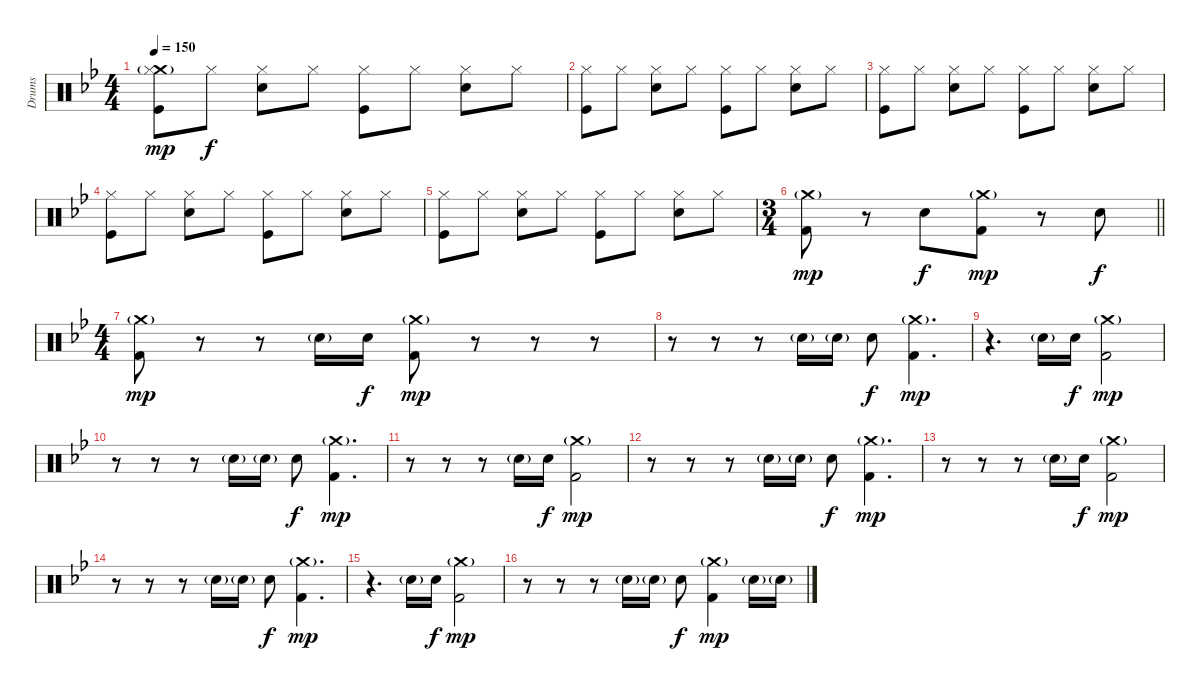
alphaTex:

\track ("Drums" "Drums") {instrument percussion}
\staff {score}
\articulation defaults
\ts (4 4)
\tempo 150
\clef neutral
\ks bb
("Crash medium (hit)"{g} "Hi-Hat (closed)" "Kick (hit)").8{dy mp} "Hi-Hat (closed)".8{dy f} ("Hi-Hat (closed)" "Electric Snare (hit)").8 "Hi-Hat (closed)".8 ("Hi-Hat (closed)" "Kick (hit)").8 "Hi-Hat (closed)".8 ("Hi-Hat (closed)" "Electric Snare (hit)").8 "Hi-Hat (closed)".8 |
("Hi-Hat (closed)" "Kick (hit)").8 "Hi-Hat (closed)".8 ("Hi-Hat (closed)" "Electric Snare (hit)").8 "Hi-Hat (closed)".8 ("Hi-Hat (closed)" "Kick (hit)").8 "Hi-Hat (closed)".8 ("Hi-Hat (closed)" "Electric Snare (hit)").8 "Hi-Hat (closed)".8 |
("Hi-Hat (closed)" "Kick (hit)").8 "Hi-Hat (closed)".8 ("Hi-Hat (closed)" "Electric Snare (hit)").8 "Hi-Hat (closed)".8 ("Hi-Hat (closed)" "Kick (hit)").8 "Hi-Hat (closed)".8 ("Hi-Hat (closed)" "Electric Snare (hit)").8 "Hi-Hat (closed)".8 |
("Hi-Hat (closed)" "Kick (hit)").8 "Hi-Hat (closed)".8 ("Hi-Hat (closed)" "Electric Snare (hit)").8 "Hi-Hat (closed)".8 ("Hi-Hat (closed)" "Kick (hit)").8 "Hi-Hat (closed)".8 ("Hi-Hat (closed)" "Electric Snare (hit)").8 "Hi-Hat (closed)".8 |
("Hi-Hat (closed)" "Kick (hit)").8 "Hi-Hat (closed)".8 ("Hi-Hat (closed)" "Electric Snare (hit)").8 "Hi-Hat (closed)".8 ("Hi-Hat (closed)" "Kick (hit)").8 "Hi-Hat (closed)".8 ("Hi-Hat (closed)" "Electric Snare (hit)").8 "Hi-Hat (closed)".8 |
\ts (3 4)
\barLineRight lightlight
("Crash medium (hit)"{g} "Kick (hit) 2").8{dy mp} r.8 "Electric Snare (hit)".8{dy f} ("Crash medium (hit)"{g} "Kick (hit) 2").8{dy mp} r.8 "Electric Snare (hit)".8{dy f} |
\ts (4 4)
("Crash medium (hit)"{g} "Kick (hit) 2").8{dy mp} r.8 r.8 "Electric Snare (hit)"{g}.16 "Electric Snare (hit)".16{dy f} ("Crash medium (hit)"{g} "Kick (hit) 2").8{dy mp} r.8 r.8 r.8 |
r.8 r.8 r.8 "Electric Snare (hit)"{g}.16 "Electric Snare (hit)"{g}.16 "Electric Snare (hit)".8{dy f} ("Crash medium (hit)"{g} "Kick (hit) 2").4{d dy mp} |
r.4{d} "Electric Snare (hit)"{g}.16 "Electric Snare (hit)".16{dy f} ("Crash medium (hit)"{g} "Kick (hit) 2").2{dy mp} |
r.8 r.8 r.8 "Electric Snare (hit)"{g}.16 "Electric Snare (hit)"{g}.16 "Electric Snare (hit)".8{dy f} ("Crash medium (hit)"{g} "Kick (hit) 2").4{d dy mp} |
r.8 r.8 r.8 "Electric Snare (hit)"{g}.16 "Electric Snare (hit)".16{dy f} ("Crash medium (hit)"{g} "Kick (hit) 2").2{dy mp} |
r.8 r.8 r.8 "Electric Snare (hit)"{g}.16 "Electric Snare (hit)"{g}.16 "Electric Snare (hit)".8{dy f} ("Crash medium (hit)"{g} "Kick (hit) 2").4{d dy mp} |
r.8 r.8 r.8 "Electric Snare (hit)"{g}.16 "Electric Snare (hit)".16{dy f} ("Crash medium (hit)"{g} "Kick (hit) 2").2{dy mp} |
r.8 r.8 r.8 "Electric Snare (hit)"{g}.16 "Electric Snare (hit)"{g}.16 "Electric Snare (hit)".8{dy f} ("Crash medium (hit)"{g} "Kick (hit) 2").4{d dy mp} |
r.4{d} "Electric Snare (hit)"{g}.16 "Electric Snare (hit)".16{dy f} ("Crash medium (hit)"{g} "Kick (hit) 2").2{dy mp} |
r.8 r.8 r.8 "Electric Snare (hit)"{g}.16 "Electric Snare (hit)"{g}.16 "Electric Snare (hit)".8{dy f} ("Crash medium (hit)"{g} "Kick (hit) 2").4{dy mp} "Electric Snare (hit)"{g}.16 "Electric Snare (hit)"{g}.16
